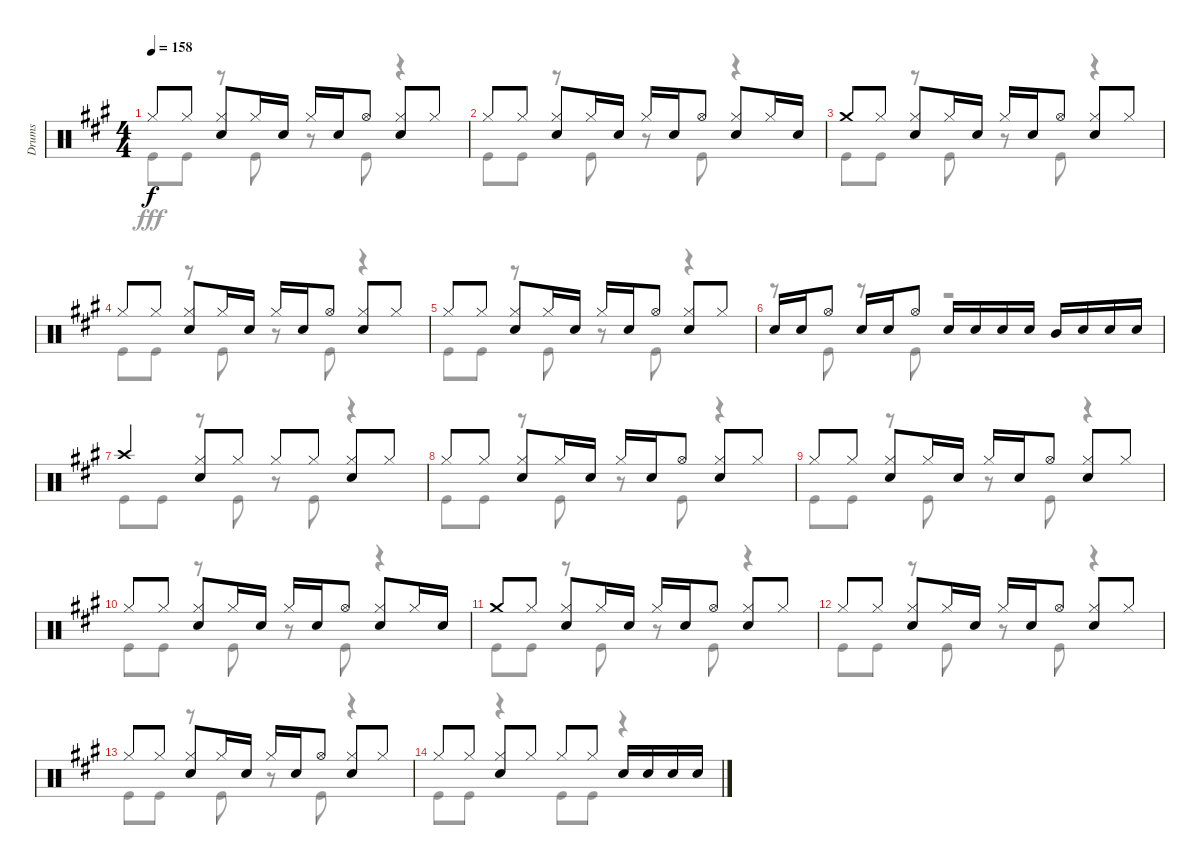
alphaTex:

\track ("Drums" "Drums") {instrument percussion}
\staff {score}
\articulation defaults
\voice
\ts (4 4)
\tempo 158
\clef neutral
\ks a "Hi-Hat (closed)".8{dy f} "Hi-Hat (closed)".8
("Hi-Hat (closed)" "Snare (hit) 2").8 "Hi-Hat (closed)".16 "Snare (hit) 2".16 "Hi-Hat (closed)".16 "Snare (hit) 2".16 "Hi-Hat (open)".8 ("Hi-Hat (closed)" "Snare (hit) 2").8 "Hi-Hat (closed)".8 |
"Hi-Hat (closed)".8 "Hi-Hat (closed)".8 ("Hi-Hat (closed)" "Snare (hit) 2").8 "Hi-Hat (closed)".16 "Snare (hit) 2".16 "Hi-Hat (closed)".16 "Snare (hit) 2".16 "Hi-Hat (open)".8 ("Hi-Hat (closed)" "Snare (hit) 2").8 "Hi-Hat (closed)".16 "Snare (hit) 2".16 |
"Crash medium (hit)".8 "Hi-Hat (closed)".8 ("Hi-Hat (closed)" "Snare (hit) 2").8 "Hi-Hat (closed)".16 "Snare (hit) 2".16 "Hi-Hat (closed)".16 "Snare (hit) 2".16 "Hi-Hat (open)".8 ("Hi-Hat (closed)" "Snare (hit) 2").8 "Hi-Hat (closed)".8 |
"Hi-Hat (closed)".8 "Hi-Hat (closed)".8 ("Hi-Hat (closed)" "Snare (hit) 2").8 "Hi-Hat (closed)".16 "Snare (hit) 2".16 "Hi-Hat (closed)".16 "Snare (hit) 2".16 "Hi-Hat (open)".8 ("Hi-Hat (closed)" "Snare (hit) 2").8 "Hi-Hat (closed)".8 |
"Hi-Hat (closed)".8 "Hi-Hat (closed)".8 ("Hi-Hat (closed)" "Snare (hit) 2").8 "Hi-Hat (closed)".16 "Snare (hit) 2".16 "Hi-Hat (closed)".16 "Snare (hit) 2".16 "Hi-Hat (open)".8 ("Hi-Hat (closed)" "Snare (hit) 2").8 "Hi-Hat (closed)".8 |
"Snare (hit) 2".16 "Snare (hit) 2".16 "Hi-Hat (open)".8 "Snare (hit) 2".16 "Snare (hit) 2".16 "Hi-Hat (open)".8 "Snare (hit) 2".16 "Snare (hit) 2".16 "Snare (hit) 2".16 "Snare (hit) 2".16 "Mid Tom (hit)".16 "Snare (hit) 2".16 "Snare (hit) 2".16 "Snare (hit) 2".16 |
"Crash high (hit)".4 ("Hi-Hat (closed)" "Snare (hit) 2").8 "Hi-Hat (closed)".8 "Hi-Hat (closed)".8 "Hi-Hat (closed)".8 ("Hi-Hat (closed)" "Snare (hit) 2").8 "Hi-Hat (closed)".8 |
"Hi-Hat (closed)".8 "Hi-Hat (closed)".8 ("Hi-Hat (closed)" "Snare (hit) 2").8 "Hi-Hat (closed)".16 "Snare (hit) 2".16 "Hi-Hat (closed)".16 "Snare (hit) 2".16 "Hi-Hat (open)".8 ("Hi-Hat (closed)" "Snare (hit) 2").8 "Hi-Hat (closed)".8 |
"Hi-Hat (closed)".8 "Hi-Hat (closed)".8 ("Hi-Hat (closed)" "Snare (hit) 2").8 "Hi-Hat (closed)".16 "Snare (hit) 2".16 "Hi-Hat (closed)".16 "Snare (hit) 2".16 "Hi-Hat (open)".8 ("Hi-Hat (closed)" "Snare (hit) 2").8 "Hi-Hat (closed)".8 |
"Hi-Hat (closed)".8 "Hi-Hat (closed)".8 ("Hi-Hat (closed)" "Snare (hit) 2").8 "Hi-Hat (closed)".16 "Snare (hit) 2".16 "Hi-Hat (closed)".16 "Snare (hit) 2".16 "Hi-Hat (open)".8 ("Hi-Hat (closed)" "Snare (hit) 2").8 "Hi-Hat (closed)".16 "Snare (hit) 2".16 |
"Crash medium (hit)".8 "Hi-Hat (closed)".8 ("Hi-Hat (closed)" "Snare (hit) 2").8 "Hi-Hat (closed)".16 "Snare (hit) 2".16 "Hi-Hat (closed)".16 "Snare (hit) 2".16 "Hi-Hat (open)".8 ("Hi-Hat (closed)" "Snare (hit) 2").8 "Hi-Hat (closed)".8 |
"Hi-Hat (closed)".8 "Hi-Hat (closed)".8 ("Hi-Hat (closed)" "Snare (hit) 2").8 "Hi-Hat (closed)".16 "Snare (hit) 2".16 "Hi-Hat (closed)".16 "Snare (hit) 2".16 "Hi-Hat (open)".8 ("Hi-Hat (closed)" "Snare (hit) 2").8 "Hi-Hat (closed)".8 |
"Hi-Hat (closed)".8 "Hi-Hat (closed)".8 ("Hi-Hat (closed)" "Snare (hit) 2").8 "Hi-Hat (closed)".16 "Snare (hit) 2".16 "Hi-Hat (closed)".16 "Snare (hit) 2".16 "Hi-Hat (open)".8 ("Hi-Hat (closed)" "Snare (hit) 2").8 "Hi-Hat (closed)".8 |
"Hi-Hat (closed)".8 "Hi-Hat (closed)".8 ("Hi-Hat (closed)" "Snare (hit) 2").8 "Hi-Hat (closed)".8 "Hi-Hat (closed)".8 "Hi-Hat (closed)".8 "Snare (hit) 2".16 "Snare (hit) 2".16 "Snare (hit) 2".16 "Snare (hit) 2".16
\voice
\clef neutral
\ottava regular
\simile none
\ks a "Kick (hit)".8{dy fff} "Kick (hit)".8
r.8 "Kick (hit)".8 r.8 "Kick (hit)".8 r.4 |
"Kick (hit)".8 "Kick (hit)".8 r.8 "Kick (hit)".8 r.8 "Kick (hit)".8 r.4 |
"Kick (hit)".8 "Kick (hit)".8 r.8 "Kick (hit)".8 r.8 "Kick (hit)".8 r.4 |
"Kick (hit)".8 "Kick (hit)".8 r.8 "Kick (hit)".8 r.8 "Kick (hit)".8 r.4 |
"Kick (hit)".8 "Kick (hit)".8 r.8 "Kick (hit)".8 r.8 "Kick (hit)".8 r.4 |
r.8 "Kick (hit)".8 r.8 "Kick (hit)".8 r.2 |
"Kick (hit)".8 "Kick (hit)".8 r.8 "Kick (hit)".8 r.8 "Kick (hit)".8 r.4 |
"Kick (hit)".8 "Kick (hit)".8 r.8 "Kick (hit)".8 r.8 "Kick (hit)".8 r.4 |
"Kick (hit)".8 "Kick (hit)".8 r.8 "Kick (hit)".8 r.8 "Kick (hit)".8 r.4 |
"Kick (hit)".8 "Kick (hit)".8 r.8 "Kick (hit)".8 r.8 "Kick (hit)".8 r.4 |
"Kick (hit)".8 "Kick (hit)".8 r.8 "Kick (hit)".8 r.8 "Kick (hit)".8 r.4 |
"Kick (hit)".8 "Kick (hit)".8 r.8 "Kick (hit)".8 r.8 "Kick (hit)".8 r.4 |
"Kick (hit)".8 "Kick (hit)".8 r.8 "Kick (hit)".8 r.8 "Kick (hit)".8 r.4 |
"Kick (hit)".8 "Kick (hit)".8 r.4 "Kick (hit)".8 "Kick (hit)".8 r.4
